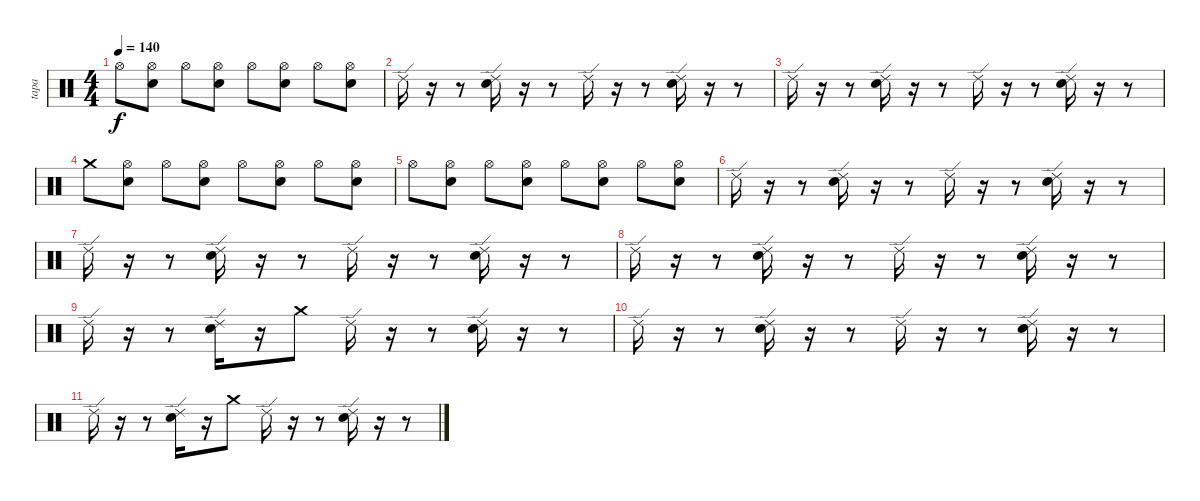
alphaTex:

\track ("tapa" "tapa") {instrument percussion}
\staff {score}
\articulation defaults
\ts (4 4)
\tempo 140
\clef neutral
\ks c "Hi-Hat (open)".8{dy f}
("Hi-Hat (open)" "Snare (hit) 2").8 "Hi-Hat (open)".8 ("Hi-Hat (open)" "Snare (hit) 2").8 "Hi-Hat (open)".8 ("Hi-Hat (open)" "Snare (hit) 2").8 "Hi-Hat (open)".8 ("Hi-Hat (open)" "Snare (hit) 2").8 |
"Ride (edge) 2".16 r.16 r.8 ("Ride (edge) 2" "Snare (hit) 2").16 r.16 r.8 "Ride (edge) 2".16 r.16 r.8 ("Ride (edge) 2" "Snare (hit) 2").16 r.16 r.8 |
"Ride (edge) 2".16 r.16 r.8 ("Ride (edge) 2" "Snare (hit) 2").16 r.16 r.8 "Ride (edge) 2".16 r.16 r.8 ("Ride (edge) 2" "Snare (hit) 2").16 r.16 r.8 |
"Crash medium (hit)".8 ("Hi-Hat (open)" "Snare (hit) 2").8 "Hi-Hat (open)".8 ("Hi-Hat (open)" "Snare (hit) 2").8 "Hi-Hat (open)".8 ("Hi-Hat (open)" "Snare (hit) 2").8 "Hi-Hat (open)".8 ("Hi-Hat (open)" "Snare (hit) 2").8 |
"Hi-Hat (open)".8 ("Hi-Hat (open)" "Snare (hit) 2").8 "Hi-Hat (open)".8 ("Hi-Hat (open)" "Snare (hit) 2").8 "Hi-Hat (open)".8 ("Hi-Hat (open)" "Snare (hit) 2").8 "Hi-Hat (open)".8 ("Hi-Hat (open)" "Snare (hit) 2").8 |
"Ride (edge) 2".16 r.16 r.8 ("Ride (edge) 2" "Snare (hit) 2").16 r.16 r.8 "Ride (edge) 2".16 r.16 r.8 ("Ride (edge) 2" "Snare (hit) 2").16 r.16 r.8 |
"Ride (edge) 2".16 r.16 r.8 ("Ride (edge) 2" "Snare (hit) 2").16 r.16 r.8 "Ride (edge) 2".16 r.16 r.8 ("Ride (edge) 2" "Snare (hit) 2").16 r.16 r.8 |
"Ride (edge) 2".16 r.16 r.8 ("Ride (edge) 2" "Snare (hit) 2").16 r.16 r.8 "Ride (edge) 2".16 r.16 r.8 ("Ride (edge) 2" "Snare (hit) 2").16 r.16 r.8 |
"Ride (edge) 2".16 r.16 r.8 ("Ride (edge) 2" "Snare (hit) 2").16 r.16 "Crash medium (hit)".8 "Ride (edge) 2".16 r.16 r.8 ("Ride (edge) 2" "Snare (hit) 2").16 r.16 r.8 |
"Ride (edge) 2".16 r.16 r.8 ("Ride (edge) 2" "Snare (hit) 2").16 r.16 r.8 "Ride (edge) 2".16 r.16 r.8 ("Ride (edge) 2" "Snare (hit) 2").16 r.16 r.8 |
"Ride (edge) 2".16 r.16 r.8 ("Ride (edge) 2" "Snare (hit) 2").16 r.16 "Crash medium (hit)".8 "Ride (edge) 2".16 r.16 r.8 ("Ride (edge) 2" "Snare (hit) 2").16 r.16 r.8
